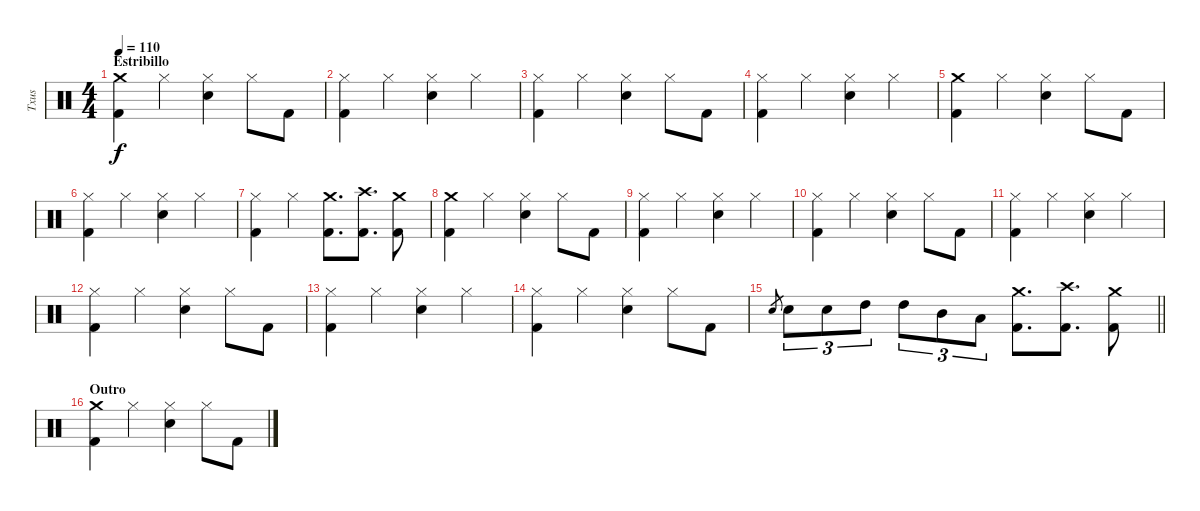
\track ("Txus" "Txus") {instrument percussion}
\staff {score}
\articulation defaults
\ts (4 4)
\section ("" "Estribillo")
\tempo 110
\clef neutral
\ks c
("Crash medium (hit)" "Kick (hit) 2").4{dy f} "Hi-Hat (closed)".4 ("Hi-Hat (closed)" "Electric Snare (hit)").4 "Hi-Hat (closed)".8 "Kick (hit) 2".8 |
("Hi-Hat (closed)" "Kick (hit) 2").4 "Hi-Hat (closed)".4 ("Hi-Hat (closed)" "Electric Snare (hit)").4 "Hi-Hat (closed)".4 |
("Hi-Hat (closed)" "Kick (hit) 2").4 "Hi-Hat (closed)".4 ("Hi-Hat (closed)" "Electric Snare (hit)").4 "Hi-Hat (closed)".8 "Kick (hit) 2".8 |
("Hi-Hat (closed)" "Kick (hit) 2").4 "Hi-Hat (closed)".4 ("Hi-Hat (closed)" "Electric Snare (hit)").4 "Hi-Hat (closed)".4 |
("Crash medium (hit)" "Kick (hit) 2").4 "Hi-Hat (closed)".4 ("Hi-Hat (closed)" "Electric Snare (hit)").4 "Hi-Hat (closed)".8 "Kick (hit) 2".8 |
("Hi-Hat (closed)" "Kick (hit) 2").4 "Hi-Hat (closed)".4 ("Hi-Hat (closed)" "Electric Snare (hit)").4 "Hi-Hat (closed)".4 |
("Hi-Hat (closed)" "Kick (hit) 2").4 "Hi-Hat (closed)".4 ("Crash medium (hit)" "Kick (hit) 2").8{d} ("Crash high (hit)" "Kick (hit) 2").8{d} ("Crash medium (hit)" "Kick (hit) 2").8 |
("Crash medium (hit)" "Kick (hit) 2").4 "Hi-Hat (closed)".4 ("Hi-Hat (closed)" "Electric Snare (hit)").4 "Hi-Hat (closed)".8 "Kick (hit) 2".8 |
("Hi-Hat (closed)" "Kick (hit) 2").4 "Hi-Hat (closed)".4 ("Hi-Hat (closed)" "Electric Snare (hit)").4 "Hi-Hat (closed)".4 |
("Hi-Hat (closed)" "Kick (hit) 2").4 "Hi-Hat (closed)".4 ("Hi-Hat (closed)" "Electric Snare (hit)").4 "Hi-Hat (closed)".8 "Kick (hit) 2".8 |
("Hi-Hat (closed)" "Kick (hit) 2").4 "Hi-Hat (closed)".4 ("Hi-Hat (closed)" "Electric Snare (hit)").4 "Hi-Hat (closed)".4 |
("Hi-Hat (closed)" "Kick (hit) 2").4 "Hi-Hat (closed)".4 ("Hi-Hat (closed)" "Electric Snare (hit)").4 "Hi-Hat (closed)".8 "Kick (hit) 2".8 |
("Hi-Hat (closed)" "Kick (hit) 2").4 "Hi-Hat (closed)".4 ("Hi-Hat (closed)" "Electric Snare (hit)").4 "Hi-Hat (closed)".4 |
("Hi-Hat (closed)" "Kick (hit) 2").4 "Hi-Hat (closed)".4 ("Hi-Hat (closed)" "Electric Snare (hit)").4 "Hi-Hat (closed)".8 "Kick (hit) 2".8 |
\barLineRight lightlight "Electric Snare (hit)".8{gr} "Electric Snare (hit)".8{tu (3 2)} "Electric Snare (hit)".8{tu (3 2)} "High Tom (hit)".8{tu (3 2)} "High Tom (hit)".8{tu (3 2)} "Mid Tom (hit)".8{tu (3 2)} "Low Tom (hit)".8{tu (3 2)}
("Crash medium (hit)" "Kick (hit) 2").8{d} ("Crash high (hit)" "Kick (hit) 2").8{d} ("Crash medium (hit)" "Kick (hit) 2").8 |
\section ("" "Outro")
("Crash medium (hit)" "Kick (hit) 2").4 "Hi-Hat (closed)".4 ("Hi-Hat (closed)" "Electric Snare (hit)").4 "Hi-Hat (closed)".8 "Kick (hit) 2".8
